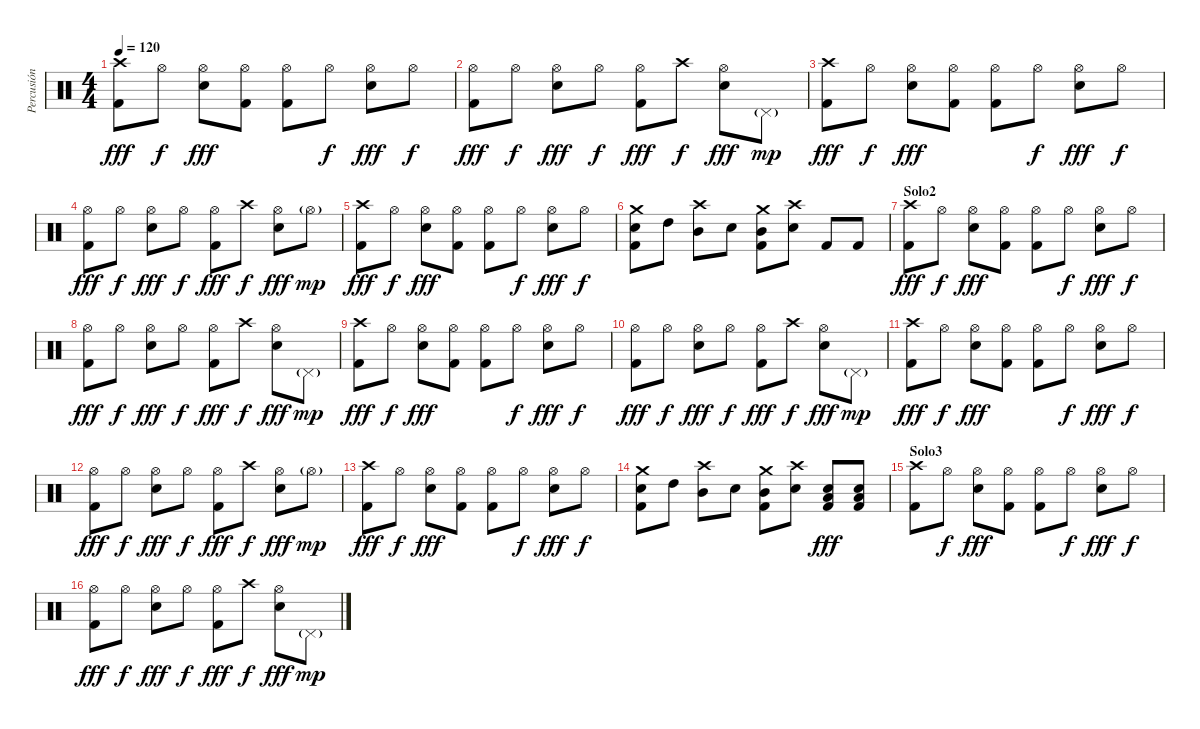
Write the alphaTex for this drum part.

\track ("Percusión" "Percusión") {instrument percussion}
\staff {score}
\articulation defaults
\ts (4 4)
\tempo 120
\clef neutral
\ks c
("Crash high (hit)" "Kick (hit) 2").8{dy fff} "Hi-Hat (open)".8{dy f} ("Hi-Hat (open)" "Snare (hit) 2").8{dy fff} ("Hi-Hat (open)" "Kick (hit) 2").8 ("Hi-Hat (open)" "Kick (hit) 2").8 "Hi-Hat (open)".8{dy f} ("Hi-Hat (open)" "Snare (hit) 2").8{dy fff} "Hi-Hat (open)".8{dy f} |
("Hi-Hat (open)" "Kick (hit) 2").8{dy fff} "Hi-Hat (open)".8{dy f} ("Hi-Hat (open)" "Snare (hit) 2").8{dy fff} "Hi-Hat (open)".8{dy f} ("Hi-Hat (open)" "Kick (hit) 2").8{dy fff} "Crash high (hit)".8{dy f} ("Hi-Hat (open)" "Snare (hit) 2").8{dy fff} "Pedal Hi-Hat (hit)"{g}.8{dy mp} |
("Crash high (hit)" "Kick (hit) 2").8{dy fff} "Hi-Hat (open)".8{dy f} ("Hi-Hat (open)" "Snare (hit) 2").8{dy fff} ("Hi-Hat (open)" "Kick (hit) 2").8 ("Hi-Hat (open)" "Kick (hit) 2").8 "Hi-Hat (open)".8{dy f} ("Hi-Hat (open)" "Snare (hit) 2").8{dy fff} "Hi-Hat (open)".8{dy f} |
("Hi-Hat (open)" "Kick (hit) 2").8{dy fff} "Hi-Hat (open)".8{dy f} ("Hi-Hat (open)" "Snare (hit) 2").8{dy fff} "Hi-Hat (open)".8{dy f} ("Hi-Hat (open)" "Kick (hit) 2").8{dy fff} "Crash high (hit)".8{dy f} ("Hi-Hat (open)" "Snare (hit) 2").8{dy fff} "Hi-Hat (open)"{g}.8{dy mp} |
("Crash high (hit)" "Kick (hit) 2").8{dy fff} "Hi-Hat (open)".8{dy f} ("Hi-Hat (open)" "Snare (hit) 2").8{dy fff} ("Hi-Hat (open)" "Kick (hit) 2").8 ("Hi-Hat (open)" "Kick (hit) 2").8 "Hi-Hat (open)".8{dy f} ("Hi-Hat (open)" "Snare (hit) 2").8{dy fff} "Hi-Hat (open)".8{dy f} |
("Crash medium (hit)" "Snare (hit) 2" "Kick (hit) 2").8 "High Tom (hit)".8 ("Crash high (hit)" "Mid Tom (hit)").8 "Snare (hit) 2".8 ("Crash medium (hit)" "Mid Tom (hit)" "Kick (hit) 2").8 ("Crash high (hit)" "Snare (hit) 2").8 "Kick (hit) 2".8 "Kick (hit) 2".8 |
\section ("" "Solo2")
("Crash high (hit)" "Kick (hit) 2").8{dy fff} "Hi-Hat (open)".8{dy f} ("Hi-Hat (open)" "Snare (hit) 2").8{dy fff} ("Hi-Hat (open)" "Kick (hit) 2").8 ("Hi-Hat (open)" "Kick (hit) 2").8 "Hi-Hat (open)".8{dy f} ("Hi-Hat (open)" "Snare (hit) 2").8{dy fff} "Hi-Hat (open)".8{dy f} |
("Hi-Hat (open)" "Kick (hit) 2").8{dy fff} "Hi-Hat (open)".8{dy f} ("Hi-Hat (open)" "Snare (hit) 2").8{dy fff} "Hi-Hat (open)".8{dy f} ("Hi-Hat (open)" "Kick (hit) 2").8{dy fff} "Crash high (hit)".8{dy f} ("Hi-Hat (open)" "Snare (hit) 2").8{dy fff} "Pedal Hi-Hat (hit)"{g}.8{dy mp} |
("Crash high (hit)" "Kick (hit) 2").8{dy fff} "Hi-Hat (open)".8{dy f} ("Hi-Hat (open)" "Snare (hit) 2").8{dy fff} ("Hi-Hat (open)" "Kick (hit) 2").8 ("Hi-Hat (open)" "Kick (hit) 2").8 "Hi-Hat (open)".8{dy f} ("Hi-Hat (open)" "Snare (hit) 2").8{dy fff} "Hi-Hat (open)".8{dy f} |
("Hi-Hat (open)" "Kick (hit) 2").8{dy fff} "Hi-Hat (open)".8{dy f} ("Hi-Hat (open)" "Snare (hit) 2").8{dy fff} "Hi-Hat (open)".8{dy f} ("Hi-Hat (open)" "Kick (hit) 2").8{dy fff} "Crash high (hit)".8{dy f} ("Hi-Hat (open)" "Snare (hit) 2").8{dy fff} "Pedal Hi-Hat (hit)"{g}.8{dy mp} |
("Crash high (hit)" "Kick (hit) 2").8{dy fff} "Hi-Hat (open)".8{dy f} ("Hi-Hat (open)" "Snare (hit) 2").8{dy fff} ("Hi-Hat (open)" "Kick (hit) 2").8 ("Hi-Hat (open)" "Kick (hit) 2").8 "Hi-Hat (open)".8{dy f} ("Hi-Hat (open)" "Snare (hit) 2").8{dy fff} "Hi-Hat (open)".8{dy f} |
("Hi-Hat (open)" "Kick (hit) 2").8{dy fff} "Hi-Hat (open)".8{dy f} ("Hi-Hat (open)" "Snare (hit) 2").8{dy fff} "Hi-Hat (open)".8{dy f} ("Hi-Hat (open)" "Kick (hit) 2").8{dy fff} "Crash high (hit)".8{dy f} ("Hi-Hat (open)" "Snare (hit) 2").8{dy fff} "Hi-Hat (open)"{g}.8{dy mp} |
("Crash high (hit)" "Kick (hit) 2").8{dy fff} "Hi-Hat (open)".8{dy f} ("Hi-Hat (open)" "Snare (hit) 2").8{dy fff} ("Hi-Hat (open)" "Kick (hit) 2").8 ("Hi-Hat (open)" "Kick (hit) 2").8 "Hi-Hat (open)".8{dy f} ("Hi-Hat (open)" "Snare (hit) 2").8{dy fff} "Hi-Hat (open)".8{dy f} |
("Crash medium (hit)" "Snare (hit) 2" "Kick (hit) 2").8 "High Tom (hit)".8 ("Crash high (hit)" "Mid Tom (hit)").8 "Snare (hit) 2".8 ("Crash medium (hit)" "Mid Tom (hit)" "Kick (hit) 2").8 ("Crash high (hit)" "Snare (hit) 2").8 ("Low Tom (hit)" "Snare (hit) 2" "Kick (hit) 2").8{dy fff} ("Low Tom (hit)" "Snare (hit) 2" "Kick (hit) 2").8 |
\section ("" "Solo3")
("Crash high (hit)" "Kick (hit) 2").8 "Hi-Hat (open)".8{dy f} ("Hi-Hat (open)" "Snare (hit) 2").8{dy fff} ("Hi-Hat (open)" "Kick (hit) 2").8 ("Hi-Hat (open)" "Kick (hit) 2").8 "Hi-Hat (open)".8{dy f} ("Hi-Hat (open)" "Snare (hit) 2").8{dy fff} "Hi-Hat (open)".8{dy f} |
("Hi-Hat (open)" "Kick (hit) 2").8{dy fff} "Hi-Hat (open)".8{dy f} ("Hi-Hat (open)" "Snare (hit) 2").8{dy fff} "Hi-Hat (open)".8{dy f} ("Hi-Hat (open)" "Kick (hit) 2").8{dy fff} "Crash high (hit)".8{dy f} ("Hi-Hat (open)" "Snare (hit) 2").8{dy fff} "Pedal Hi-Hat (hit)"{g}.8{dy mp}
